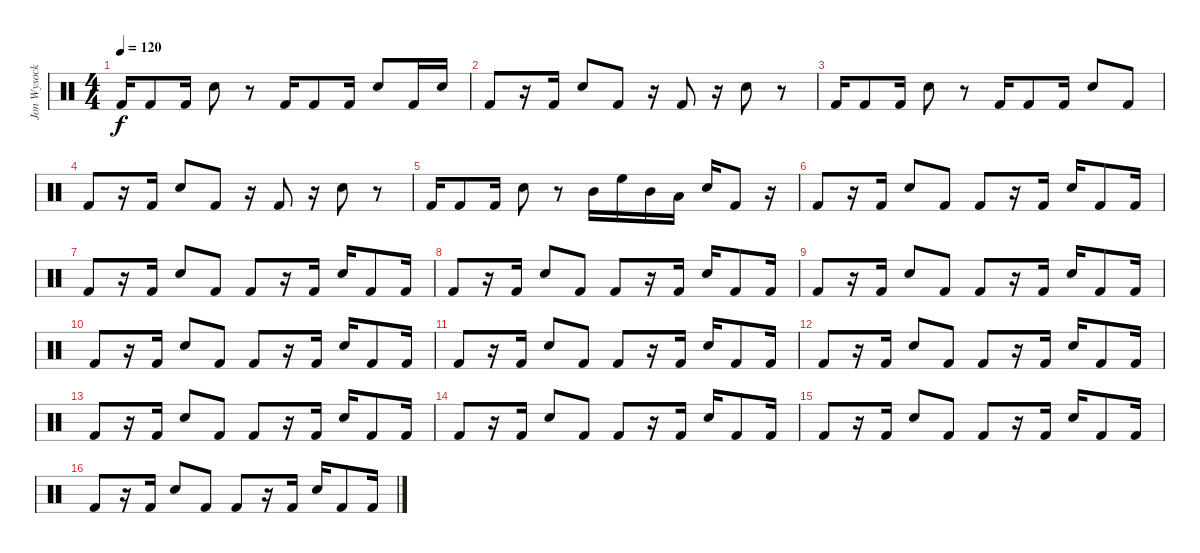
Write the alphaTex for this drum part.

\track ("Jon Wysocki" "Jon Wysock") {instrument percussion}
\staff {score}
\articulation defaults
\ts (4 4)
\tempo 120
\clef neutral
\ks c "Kick (hit) 2".16{dy f} "Kick (hit) 2".8 "Kick (hit) 2".16 "Electric Snare (hit)".8
r.8 "Kick (hit) 2".16 "Kick (hit) 2".8 "Kick (hit) 2".16 "Electric Snare (hit)".8 "Kick (hit) 2".16 "Electric Snare (hit)".16 |
"Kick (hit) 2".8 r.16 "Kick (hit) 2".16 "Electric Snare (hit)".8 "Kick (hit) 2".8 r.16 "Kick (hit) 2".8 r.16 "Electric Snare (hit)".8 r.8 |
"Kick (hit) 2".16 "Kick (hit) 2".8 "Kick (hit) 2".16 "Electric Snare (hit)".8 r.8 "Kick (hit) 2".16 "Kick (hit) 2".8 "Kick (hit) 2".16 "Electric Snare (hit)".8 "Kick (hit) 2".8 |
"Kick (hit) 2".8 r.16 "Kick (hit) 2".16 "Electric Snare (hit)".8 "Kick (hit) 2".8 r.16 "Kick (hit) 2".8 r.16 "Electric Snare (hit)".8 r.8 |
"Kick (hit) 2".16 "Kick (hit) 2".8 "Kick (hit) 2".16 "Electric Snare (hit)".8 r.8 "Mid Tom (hit)".16 "High Floor Tom (hit)".16 "Mid Tom (hit)".16 "Low Tom (hit)".16 "Electric Snare (hit)".16 "Kick (hit) 2".8 r.16 |
"Kick (hit) 2".8 r.16 "Kick (hit) 2".16 "Electric Snare (hit)".8 "Kick (hit) 2".8 "Kick (hit) 2".8 r.16 "Kick (hit) 2".16 "Electric Snare (hit)".16 "Kick (hit) 2".8 "Kick (hit) 2".16 |
"Kick (hit) 2".8 r.16 "Kick (hit) 2".16 "Electric Snare (hit)".8 "Kick (hit) 2".8 "Kick (hit) 2".8 r.16 "Kick (hit) 2".16 "Electric Snare (hit)".16 "Kick (hit) 2".8 "Kick (hit) 2".16 |
"Kick (hit) 2".8 r.16 "Kick (hit) 2".16 "Electric Snare (hit)".8 "Kick (hit) 2".8 "Kick (hit) 2".8 r.16 "Kick (hit) 2".16 "Electric Snare (hit)".16 "Kick (hit) 2".8 "Kick (hit) 2".16 |
"Kick (hit) 2".8 r.16 "Kick (hit) 2".16 "Electric Snare (hit)".8 "Kick (hit) 2".8 "Kick (hit) 2".8 r.16 "Kick (hit) 2".16 "Electric Snare (hit)".16 "Kick (hit) 2".8 "Kick (hit) 2".16 |
"Kick (hit) 2".8 r.16 "Kick (hit) 2".16 "Electric Snare (hit)".8 "Kick (hit) 2".8 "Kick (hit) 2".8 r.16 "Kick (hit) 2".16 "Electric Snare (hit)".16 "Kick (hit) 2".8 "Kick (hit) 2".16 |
"Kick (hit) 2".8 r.16 "Kick (hit) 2".16 "Electric Snare (hit)".8 "Kick (hit) 2".8 "Kick (hit) 2".8 r.16 "Kick (hit) 2".16 "Electric Snare (hit)".16 "Kick (hit) 2".8 "Kick (hit) 2".16 |
"Kick (hit) 2".8 r.16 "Kick (hit) 2".16 "Electric Snare (hit)".8 "Kick (hit) 2".8 "Kick (hit) 2".8 r.16 "Kick (hit) 2".16 "Electric Snare (hit)".16 "Kick (hit) 2".8 "Kick (hit) 2".16 |
"Kick (hit) 2".8 r.16 "Kick (hit) 2".16 "Electric Snare (hit)".8 "Kick (hit) 2".8 "Kick (hit) 2".8 r.16 "Kick (hit) 2".16 "Electric Snare (hit)".16 "Kick (hit) 2".8 "Kick (hit) 2".16 |
"Kick (hit) 2".8 r.16 "Kick (hit) 2".16 "Electric Snare (hit)".8 "Kick (hit) 2".8 "Kick (hit) 2".8 r.16 "Kick (hit) 2".16 "Electric Snare (hit)".16 "Kick (hit) 2".8 "Kick (hit) 2".16 |
"Kick (hit) 2".8 r.16 "Kick (hit) 2".16 "Electric Snare (hit)".8 "Kick (hit) 2".8 "Kick (hit) 2".8 r.16 "Kick (hit) 2".16 "Electric Snare (hit)".16 "Kick (hit) 2".8 "Kick (hit) 2".16 |
"Kick (hit) 2".8 r.16 "Kick (hit) 2".16 "Electric Snare (hit)".8 "Kick (hit) 2".8 "Kick (hit) 2".8 r.16 "Kick (hit) 2".16 "Electric Snare (hit)".16 "Kick (hit) 2".8 "Kick (hit) 2".16
